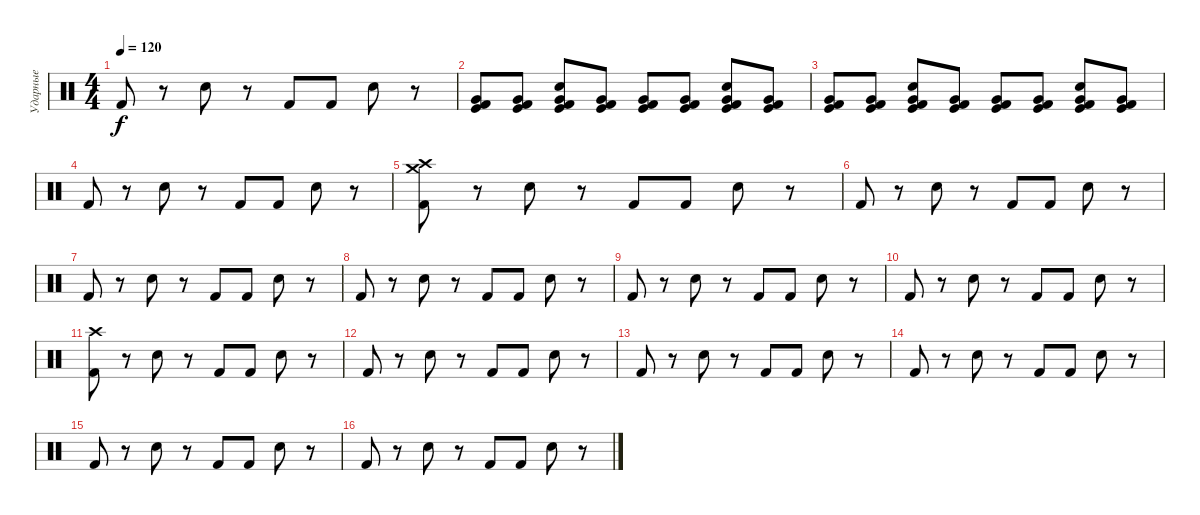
\track ("Ударные" "Ударные") {instrument percussion}
\staff {score}
\articulation defaults
\ts (4 4)
\tempo 120
\clef neutral
\ks c "Kick (hit) 2".8{dy f}
r.8 "Snare (hit) 2".8 r.8 "Kick (hit) 2".8 "Kick (hit) 2".8 "Snare (hit) 2".8 r.8 |
("Very Low Tom (hit)" "Kick (hit)" "Kick (hit) 2").8 ("Very Low Tom (hit)" "Kick (hit)" "Kick (hit) 2").8 ("Very Low Tom (hit)" "Kick (hit)" "Snare (hit) 2" "Kick (hit) 2").8 ("Very Low Tom (hit)" "Kick (hit)" "Kick (hit) 2").8 ("Very Low Tom (hit)" "Kick (hit)" "Kick (hit) 2").8 ("Very Low Tom (hit)" "Kick (hit)" "Kick (hit) 2").8 ("Very Low Tom (hit)" "Kick (hit)" "Snare (hit) 2" "Kick (hit) 2").8 ("Very Low Tom (hit)" "Kick (hit)" "Kick (hit) 2").8 |
("Very Low Tom (hit)" "Kick (hit)" "Kick (hit) 2").8 ("Very Low Tom (hit)" "Kick (hit)" "Kick (hit) 2").8 ("Very Low Tom (hit)" "Kick (hit)" "Snare (hit) 2" "Kick (hit) 2").8 ("Very Low Tom (hit)" "Kick (hit)" "Kick (hit) 2").8 ("Very Low Tom (hit)" "Kick (hit)" "Kick (hit) 2").8 ("Very Low Tom (hit)" "Kick (hit)" "Kick (hit) 2").8 ("Very Low Tom (hit)" "Kick (hit)" "Snare (hit) 2" "Kick (hit) 2").8 ("Very Low Tom (hit)" "Kick (hit)" "Kick (hit) 2").8 |
"Kick (hit) 2".8 r.8 "Snare (hit) 2".8 r.8 "Kick (hit) 2".8 "Kick (hit) 2".8 "Snare (hit) 2".8 r.8 |
("Crash medium (hit)" "Crash high (hit)" "Kick (hit) 2").8 r.8 "Snare (hit) 2".8 r.8 "Kick (hit) 2".8 "Kick (hit) 2".8 "Snare (hit) 2".8 r.8 |
"Kick (hit) 2".8 r.8 "Snare (hit) 2".8 r.8 "Kick (hit) 2".8 "Kick (hit) 2".8 "Snare (hit) 2".8 r.8 |
"Kick (hit) 2".8 r.8 "Snare (hit) 2".8 r.8 "Kick (hit) 2".8 "Kick (hit) 2".8 "Snare (hit) 2".8 r.8 |
"Kick (hit) 2".8 r.8 "Snare (hit) 2".8 r.8 "Kick (hit) 2".8 "Kick (hit) 2".8 "Snare (hit) 2".8 r.8 |
"Kick (hit) 2".8 r.8 "Snare (hit) 2".8 r.8 "Kick (hit) 2".8 "Kick (hit) 2".8 "Snare (hit) 2".8 r.8 |
"Kick (hit) 2".8 r.8 "Snare (hit) 2".8 r.8 "Kick (hit) 2".8 "Kick (hit) 2".8 "Snare (hit) 2".8 r.8 |
("Crash high (hit)" "Kick (hit) 2").8 r.8 "Snare (hit) 2".8 r.8 "Kick (hit) 2".8 "Kick (hit) 2".8 "Snare (hit) 2".8 r.8 |
"Kick (hit) 2".8 r.8 "Snare (hit) 2".8 r.8 "Kick (hit) 2".8 "Kick (hit) 2".8 "Snare (hit) 2".8 r.8 |
"Kick (hit) 2".8 r.8 "Snare (hit) 2".8 r.8 "Kick (hit) 2".8 "Kick (hit) 2".8 "Snare (hit) 2".8 r.8 |
"Kick (hit) 2".8 r.8 "Snare (hit) 2".8 r.8 "Kick (hit) 2".8 "Kick (hit) 2".8 "Snare (hit) 2".8 r.8 |
"Kick (hit) 2".8 r.8 "Snare (hit) 2".8 r.8 "Kick (hit) 2".8 "Kick (hit) 2".8 "Snare (hit) 2".8 r.8 |
"Kick (hit) 2".8 r.8 "Snare (hit) 2".8 r.8 "Kick (hit) 2".8 "Kick (hit) 2".8 "Snare (hit) 2".8 r.8
